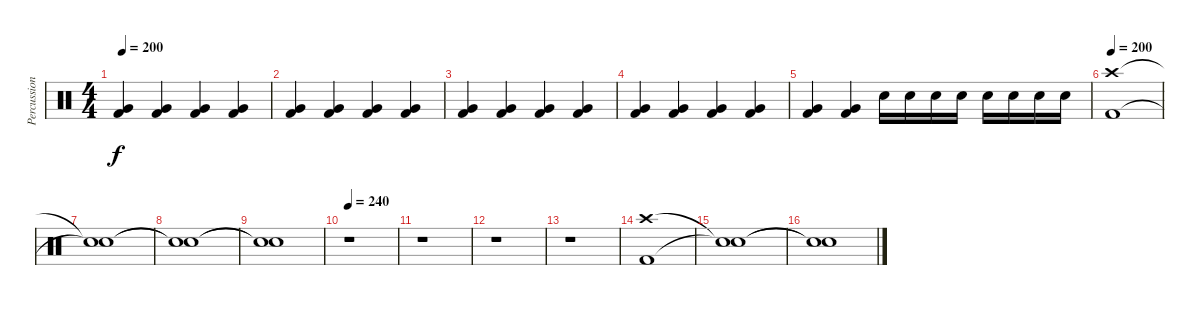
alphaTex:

\track ("Percussion" "Percussion") {instrument percussion}
\staff {score}
\articulation defaults
\ts (4 4)
\tempo 200
\clef neutral
\ks c
("Very Low Tom (hit)" "Kick (hit) 2").4{dy f volume 7} ("Very Low Tom (hit)" "Kick (hit) 2").4 ("Very Low Tom (hit)" "Kick (hit) 2").4{volume 8} ("Very Low Tom (hit)" "Kick (hit) 2").4 |
("Very Low Tom (hit)" "Kick (hit) 2").4{volume 9} ("Very Low Tom (hit)" "Kick (hit) 2").4 ("Very Low Tom (hit)" "Kick (hit) 2").4{volume 10} ("Very Low Tom (hit)" "Kick (hit) 2").4 |
("Very Low Tom (hit)" "Kick (hit) 2").4{volume 11} ("Very Low Tom (hit)" "Kick (hit) 2").4 ("Very Low Tom (hit)" "Kick (hit) 2").4{volume 12} ("Very Low Tom (hit)" "Kick (hit) 2").4 |
("Very Low Tom (hit)" "Kick (hit) 2").4 ("Very Low Tom (hit)" "Kick (hit) 2").4 ("Very Low Tom (hit)" "Kick (hit) 2").4 ("Very Low Tom (hit)" "Kick (hit) 2").4 |
("Very Low Tom (hit)" "Kick (hit) 2").4 ("Very Low Tom (hit)" "Kick (hit) 2").4 "Snare (hit) 2".16 "Snare (hit) 2".16 "Snare (hit) 2".16 "Snare (hit) 2".16 "Snare (hit) 2".16 "Snare (hit) 2".16 "Snare (hit) 2".16 "Snare (hit) 2".16 |
\tempo 200
("Kick (hit) 2" "Crash high (hit)").1 |
("Snare (hit)"{t} "Snare (hit)"{t}).1 |
("Snare (hit)"{t} "Snare (hit)"{t}).1 |
("Snare (hit)"{t} "Snare (hit)"{t}).1 |
\tempo 240
r.1 |
r.1 |
r.1 |
r.1 |
("Crash high (hit)" "Kick (hit) 2").1 |
("Snare (hit)"{t} "Snare (hit)"{t}).1 |
("Snare (hit)"{t} "Snare (hit)"{t}).1
